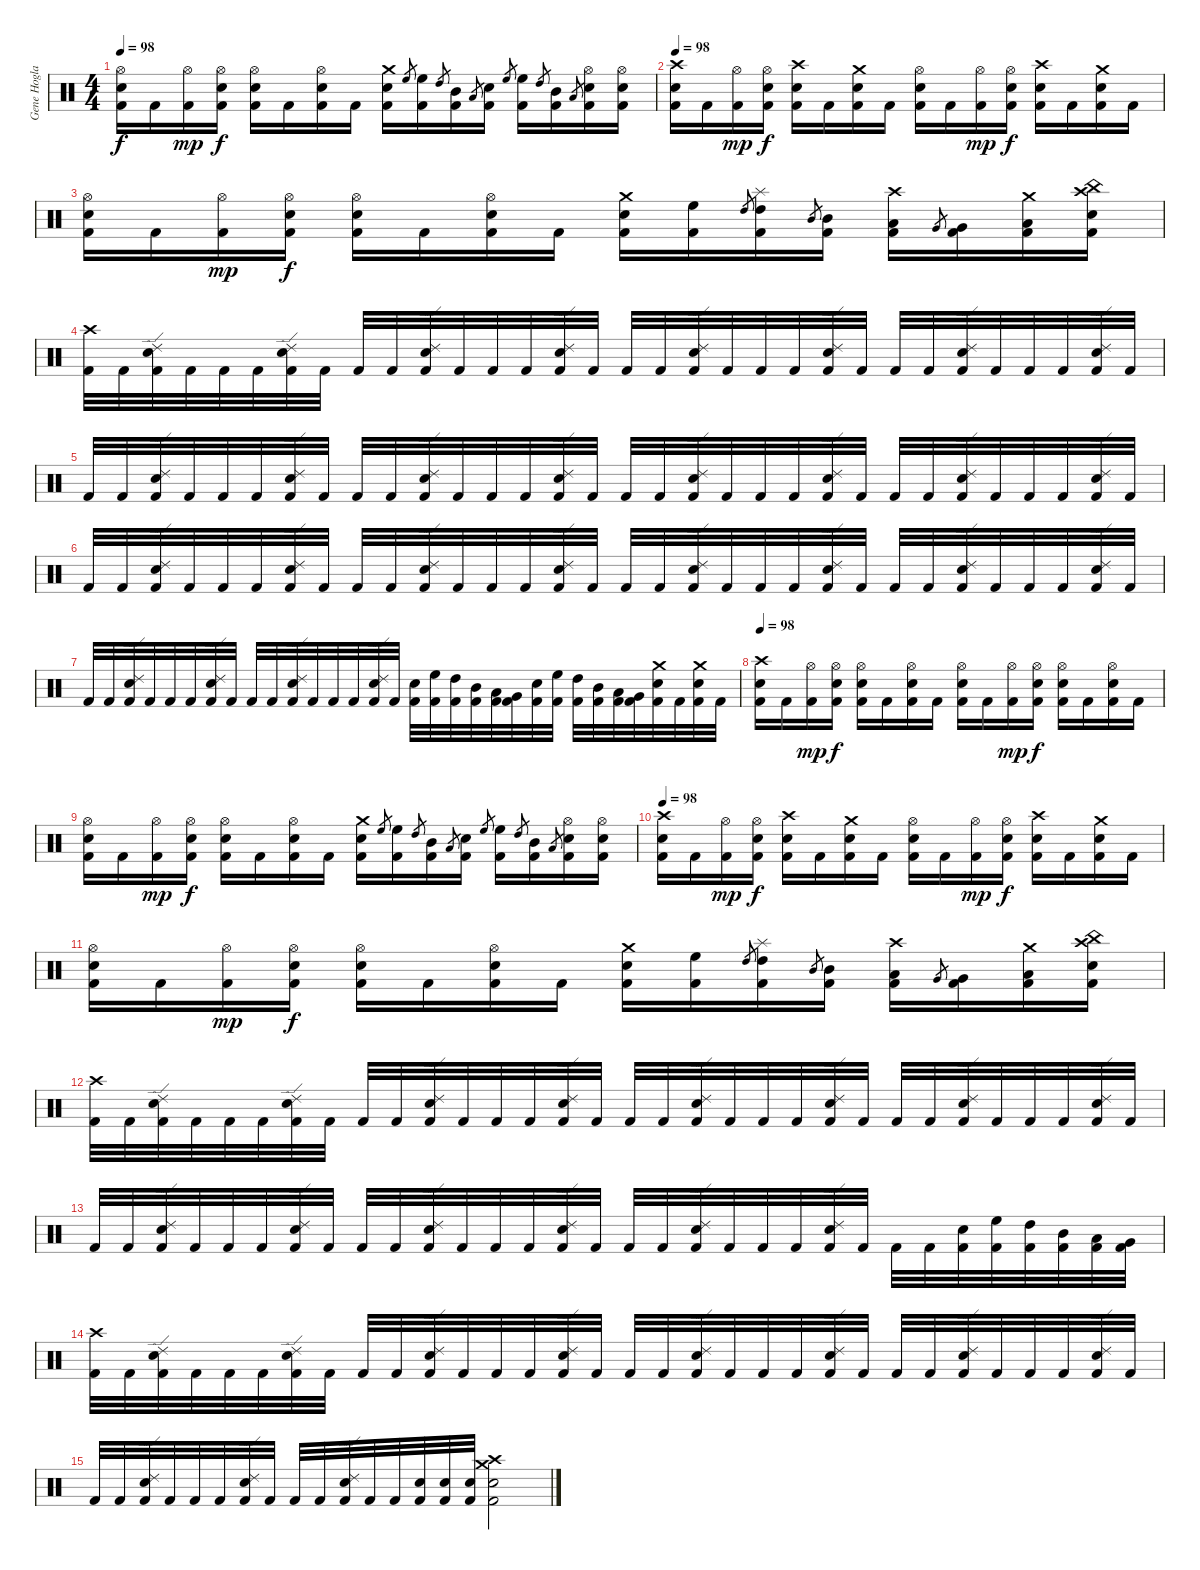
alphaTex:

\track ("Gene Hoglan" "Gene Hogla") {instrument percussion}
\staff {score}
\articulation defaults
\ts (4 4)
\tempo 98
\clef neutral
\ks c
("Kick (hit) 2" "Electric Snare (hit)" "Hi-Hat (open)").16{dy f} "Kick (hit) 2".16 ("Kick (hit) 2" "Hi-Hat (open)").16{dy mp} ("Kick (hit) 2" "Electric Snare (hit)" "Hi-Hat (open)").16{dy f} ("Kick (hit) 2" "Electric Snare (hit)" "Hi-Hat (open)").16 "Kick (hit) 2".16 ("Kick (hit) 2" "Electric Snare (hit)" "Hi-Hat (open)").16 "Kick (hit) 2".16 ("Kick (hit) 2" "Electric Snare (hit)" "Crash medium (hit)").16 "High Floor Tom (hit)".8{gr} ("Kick (hit) 2" "High Floor Tom (hit)").16 "High Tom (hit)".8{gr} ("Kick (hit) 2" "Mid Tom (hit)").16 "Low Tom (hit)".8{gr} ("Kick (hit) 2" "Electric Snare (hit)").16 "High Floor Tom (hit)".8{gr} ("Kick (hit) 2" "High Floor Tom (hit)").16 "High Tom (hit)".8{gr} ("Kick (hit) 2" "Mid Tom (hit)").16 "Low Tom (hit)".8{gr} ("Kick (hit) 2" "Electric Snare (hit)" "Hi-Hat (open)").16 ("Kick (hit) 2" "Electric Snare (hit)" "Hi-Hat (open)").16 |
\tempo 98
("Kick (hit) 2" "Electric Snare (hit)" "Crash high (hit)").16 "Kick (hit) 2".16 ("Kick (hit) 2" "Hi-Hat (open)").16{dy mp} ("Kick (hit) 2" "Electric Snare (hit)" "Hi-Hat (open)").16{dy f} ("Kick (hit) 2" "Electric Snare (hit)" "Crash high (hit)").16 "Kick (hit) 2".16 ("Kick (hit) 2" "Electric Snare (hit)" "Crash medium (hit)").16 "Kick (hit) 2".16 ("Kick (hit) 2" "Electric Snare (hit)" "Hi-Hat (open)").16 "Kick (hit) 2".16 ("Kick (hit) 2" "Hi-Hat (open)").16{dy mp} ("Kick (hit) 2" "Electric Snare (hit)" "Hi-Hat (open)").16{dy f} ("Kick (hit) 2" "Electric Snare (hit)" "Crash high (hit)").16 "Kick (hit) 2".16 ("Kick (hit) 2" "Electric Snare (hit)" "Crash medium (hit)").16 "Kick (hit) 2".16 |
("Kick (hit) 2" "Electric Snare (hit)" "Hi-Hat (open)").16 "Kick (hit) 2".16 ("Kick (hit) 2" "Hi-Hat (open)").16{dy mp} ("Kick (hit) 2" "Electric Snare (hit)" "Hi-Hat (open)").16{dy f} ("Kick (hit) 2" "Electric Snare (hit)" "Hi-Hat (open)").16 "Kick (hit) 2".16 ("Kick (hit) 2" "Electric Snare (hit)" "Hi-Hat (open)").16 "Kick (hit) 2".16 ("Kick (hit) 2" "Electric Snare (hit)" "Crash medium (hit)").16 ("Kick (hit) 2" "High Floor Tom (hit)").16 "High Tom (hit)".8{gr} ("Kick (hit) 2" "High Tom (hit)" "Splash (hit)").16 "Mid Tom (hit)".8{gr} ("Kick (hit) 2" "Mid Tom (hit)").16 ("Kick (hit) 2" "Low Tom (hit)" "Crash high (hit)").16 "Very Low Tom (hit)".8{gr} ("Kick (hit) 2" "Very Low Tom (hit)").16 ("Kick (hit) 2" "Low Floor Tom (hit)" "Crash medium (hit)").16 ("Kick (hit) 2" "Electric Snare (hit)" "Crash high (hit)" "China (hit)").16 |
("Kick (hit) 2" "Crash high (hit)").32 "Kick (hit) 2".32 ("Kick (hit) 2" "Electric Snare (hit)" "Ride (edge) 2").32 "Kick (hit) 2".32 "Kick (hit) 2".32 "Kick (hit) 2".32 ("Kick (hit) 2" "Electric Snare (hit)" "Ride (edge) 2").32 "Kick (hit) 2".32 "Kick (hit) 2".32 "Kick (hit) 2".32 ("Kick (hit) 2" "Electric Snare (hit)" "Ride (edge) 2").32 "Kick (hit) 2".32 "Kick (hit) 2".32 "Kick (hit) 2".32 ("Kick (hit) 2" "Electric Snare (hit)" "Ride (edge) 2").32 "Kick (hit) 2".32 "Kick (hit) 2".32 "Kick (hit) 2".32 ("Kick (hit) 2" "Electric Snare (hit)" "Ride (edge) 2").32 "Kick (hit) 2".32 "Kick (hit) 2".32 "Kick (hit) 2".32 ("Kick (hit) 2" "Electric Snare (hit)" "Ride (edge) 2").32 "Kick (hit) 2".32 "Kick (hit) 2".32 "Kick (hit) 2".32 ("Kick (hit) 2" "Electric Snare (hit)" "Ride (edge) 2").32 "Kick (hit) 2".32 "Kick (hit) 2".32 "Kick (hit) 2".32 ("Kick (hit) 2" "Electric Snare (hit)" "Ride (edge) 2").32 "Kick (hit) 2".32 |
"Kick (hit) 2".32 "Kick (hit) 2".32 ("Kick (hit) 2" "Electric Snare (hit)" "Ride (edge) 2").32 "Kick (hit) 2".32 "Kick (hit) 2".32 "Kick (hit) 2".32 ("Kick (hit) 2" "Electric Snare (hit)" "Ride (edge) 2").32 "Kick (hit) 2".32 "Kick (hit) 2".32 "Kick (hit) 2".32 ("Kick (hit) 2" "Electric Snare (hit)" "Ride (edge) 2").32 "Kick (hit) 2".32 "Kick (hit) 2".32 "Kick (hit) 2".32 ("Kick (hit) 2" "Electric Snare (hit)" "Ride (edge) 2").32 "Kick (hit) 2".32 "Kick (hit) 2".32 "Kick (hit) 2".32 ("Kick (hit) 2" "Electric Snare (hit)" "Ride (edge) 2").32 "Kick (hit) 2".32 "Kick (hit) 2".32 "Kick (hit) 2".32 ("Kick (hit) 2" "Electric Snare (hit)" "Ride (edge) 2").32 "Kick (hit) 2".32 "Kick (hit) 2".32 "Kick (hit) 2".32 ("Kick (hit) 2" "Electric Snare (hit)" "Ride (edge) 2").32 "Kick (hit) 2".32 "Kick (hit) 2".32 "Kick (hit) 2".32 ("Kick (hit) 2" "Electric Snare (hit)" "Ride (edge) 2").32 "Kick (hit) 2".32 |
"Kick (hit) 2".32 "Kick (hit) 2".32 ("Kick (hit) 2" "Electric Snare (hit)" "Ride (edge) 2").32 "Kick (hit) 2".32 "Kick (hit) 2".32 "Kick (hit) 2".32 ("Kick (hit) 2" "Electric Snare (hit)" "Ride (edge) 2").32 "Kick (hit) 2".32 "Kick (hit) 2".32 "Kick (hit) 2".32 ("Kick (hit) 2" "Electric Snare (hit)" "Ride (edge) 2").32 "Kick (hit) 2".32 "Kick (hit) 2".32 "Kick (hit) 2".32 ("Kick (hit) 2" "Electric Snare (hit)" "Ride (edge) 2").32 "Kick (hit) 2".32 "Kick (hit) 2".32 "Kick (hit) 2".32 ("Kick (hit) 2" "Electric Snare (hit)" "Ride (edge) 2").32 "Kick (hit) 2".32 "Kick (hit) 2".32 "Kick (hit) 2".32 ("Kick (hit) 2" "Electric Snare (hit)" "Ride (edge) 2").32 "Kick (hit) 2".32 "Kick (hit) 2".32 "Kick (hit) 2".32 ("Kick (hit) 2" "Electric Snare (hit)" "Ride (edge) 2").32 "Kick (hit) 2".32 "Kick (hit) 2".32 "Kick (hit) 2".32 ("Kick (hit) 2" "Electric Snare (hit)" "Ride (edge) 2").32 "Kick (hit) 2".32 |
"Kick (hit) 2".32 "Kick (hit) 2".32 ("Kick (hit) 2" "Electric Snare (hit)" "Ride (edge) 2").32 "Kick (hit) 2".32 "Kick (hit) 2".32 "Kick (hit) 2".32 ("Kick (hit) 2" "Electric Snare (hit)" "Ride (edge) 2").32 "Kick (hit) 2".32 "Kick (hit) 2".32 "Kick (hit) 2".32 ("Kick (hit) 2" "Electric Snare (hit)" "Ride (edge) 2").32 "Kick (hit) 2".32 "Kick (hit) 2".32 "Kick (hit) 2".32 ("Kick (hit) 2" "Electric Snare (hit)" "Ride (edge) 2").32 "Kick (hit) 2".32 ("Kick (hit) 2" "Electric Snare (hit)").32 ("Kick (hit) 2" "High Floor Tom (hit)").32 ("Kick (hit) 2" "High Tom (hit)").32 ("Kick (hit) 2" "Mid Tom (hit)").32 ("Kick (hit) 2" "Low Tom (hit)").32 ("Kick (hit) 2" "Very Low Tom (hit)").32 ("Kick (hit) 2" "Electric Snare (hit)").32 ("Kick (hit) 2" "High Floor Tom (hit)").32 ("Kick (hit) 2" "High Tom (hit)").32 ("Kick (hit) 2" "Mid Tom (hit)").32 ("Kick (hit) 2" "Low Tom (hit)").32 ("Kick (hit) 2" "Very Low Tom (hit)").32 ("Kick (hit) 2" "Electric Snare (hit)" "Crash medium (hit)").32 "Kick (hit) 2".32 ("Kick (hit) 2" "Electric Snare (hit)" "Crash medium (hit)").32 "Kick (hit) 2".32 |
\tempo 98
("Kick (hit) 2" "Electric Snare (hit)" "Crash high (hit)").16 "Kick (hit) 2".16 ("Kick (hit) 2" "Hi-Hat (open)").16{dy mp} ("Kick (hit) 2" "Electric Snare (hit)" "Hi-Hat (open)").16{dy f} ("Kick (hit) 2" "Electric Snare (hit)" "Hi-Hat (open)").16 "Kick (hit) 2".16 ("Kick (hit) 2" "Electric Snare (hit)" "Hi-Hat (open)").16 "Kick (hit) 2".16 ("Kick (hit) 2" "Electric Snare (hit)" "Hi-Hat (open)").16 "Kick (hit) 2".16 ("Kick (hit) 2" "Hi-Hat (open)").16{dy mp} ("Kick (hit) 2" "Electric Snare (hit)" "Hi-Hat (open)").16{dy f} ("Kick (hit) 2" "Electric Snare (hit)" "Hi-Hat (open)").16 "Kick (hit) 2".16 ("Kick (hit) 2" "Electric Snare (hit)" "Hi-Hat (open)").16 "Kick (hit) 2".16 |
("Kick (hit) 2" "Electric Snare (hit)" "Hi-Hat (open)").16 "Kick (hit) 2".16 ("Kick (hit) 2" "Hi-Hat (open)").16{dy mp} ("Kick (hit) 2" "Electric Snare (hit)" "Hi-Hat (open)").16{dy f} ("Kick (hit) 2" "Electric Snare (hit)" "Hi-Hat (open)").16 "Kick (hit) 2".16 ("Kick (hit) 2" "Electric Snare (hit)" "Hi-Hat (open)").16 "Kick (hit) 2".16 ("Kick (hit) 2" "Electric Snare (hit)" "Crash medium (hit)").16 "High Floor Tom (hit)".8{gr} ("Kick (hit) 2" "High Floor Tom (hit)").16 "High Tom (hit)".8{gr} ("Kick (hit) 2" "Mid Tom (hit)").16 "Low Tom (hit)".8{gr} ("Kick (hit) 2" "Electric Snare (hit)").16 "High Floor Tom (hit)".8{gr} ("Kick (hit) 2" "High Floor Tom (hit)").16 "High Tom (hit)".8{gr} ("Kick (hit) 2" "Mid Tom (hit)").16 "Low Tom (hit)".8{gr} ("Kick (hit) 2" "Electric Snare (hit)" "Hi-Hat (open)").16 ("Kick (hit) 2" "Electric Snare (hit)" "Hi-Hat (open)").16 |
\tempo 98
("Kick (hit) 2" "Electric Snare (hit)" "Crash high (hit)").16 "Kick (hit) 2".16 ("Kick (hit) 2" "Hi-Hat (open)").16{dy mp} ("Kick (hit) 2" "Electric Snare (hit)" "Hi-Hat (open)").16{dy f} ("Kick (hit) 2" "Electric Snare (hit)" "Crash high (hit)").16 "Kick (hit) 2".16 ("Kick (hit) 2" "Electric Snare (hit)" "Crash medium (hit)").16 "Kick (hit) 2".16 ("Kick (hit) 2" "Electric Snare (hit)" "Hi-Hat (open)").16 "Kick (hit) 2".16 ("Kick (hit) 2" "Hi-Hat (open)").16{dy mp} ("Kick (hit) 2" "Electric Snare (hit)" "Hi-Hat (open)").16{dy f} ("Kick (hit) 2" "Electric Snare (hit)" "Crash high (hit)").16 "Kick (hit) 2".16 ("Kick (hit) 2" "Electric Snare (hit)" "Crash medium (hit)").16 "Kick (hit) 2".16 |
("Kick (hit) 2" "Electric Snare (hit)" "Hi-Hat (open)").16 "Kick (hit) 2".16 ("Kick (hit) 2" "Hi-Hat (open)").16{dy mp} ("Kick (hit) 2" "Electric Snare (hit)" "Hi-Hat (open)").16{dy f} ("Kick (hit) 2" "Electric Snare (hit)" "Hi-Hat (open)").16 "Kick (hit) 2".16 ("Kick (hit) 2" "Electric Snare (hit)" "Hi-Hat (open)").16 "Kick (hit) 2".16 ("Kick (hit) 2" "Electric Snare (hit)" "Crash medium (hit)").16 ("Kick (hit) 2" "High Floor Tom (hit)").16 "High Tom (hit)".8{gr} ("Kick (hit) 2" "High Tom (hit)" "Splash (hit)").16 "Mid Tom (hit)".8{gr} ("Kick (hit) 2" "Mid Tom (hit)").16 ("Kick (hit) 2" "Low Tom (hit)" "Crash high (hit)").16 "Very Low Tom (hit)".8{gr} ("Kick (hit) 2" "Very Low Tom (hit)").16 ("Kick (hit) 2" "Low Floor Tom (hit)" "Crash medium (hit)").16 ("Kick (hit) 2" "Electric Snare (hit)" "Crash high (hit)" "China (hit)").16 |
("Kick (hit) 2" "Crash high (hit)").32 "Kick (hit) 2".32 ("Kick (hit) 2" "Electric Snare (hit)" "Ride (edge) 2").32 "Kick (hit) 2".32 "Kick (hit) 2".32 "Kick (hit) 2".32 ("Kick (hit) 2" "Electric Snare (hit)" "Ride (edge) 2").32 "Kick (hit) 2".32 "Kick (hit) 2".32 "Kick (hit) 2".32 ("Kick (hit) 2" "Electric Snare (hit)" "Ride (edge) 2").32 "Kick (hit) 2".32 "Kick (hit) 2".32 "Kick (hit) 2".32 ("Kick (hit) 2" "Electric Snare (hit)" "Ride (edge) 2").32 "Kick (hit) 2".32 "Kick (hit) 2".32 "Kick (hit) 2".32 ("Kick (hit) 2" "Electric Snare (hit)" "Ride (edge) 2").32 "Kick (hit) 2".32 "Kick (hit) 2".32 "Kick (hit) 2".32 ("Kick (hit) 2" "Electric Snare (hit)" "Ride (edge) 2").32 "Kick (hit) 2".32 "Kick (hit) 2".32 "Kick (hit) 2".32 ("Kick (hit) 2" "Electric Snare (hit)" "Ride (edge) 2").32 "Kick (hit) 2".32 "Kick (hit) 2".32 "Kick (hit) 2".32 ("Kick (hit) 2" "Electric Snare (hit)" "Ride (edge) 2").32 "Kick (hit) 2".32 |
"Kick (hit) 2".32 "Kick (hit) 2".32 ("Kick (hit) 2" "Electric Snare (hit)" "Ride (edge) 2").32 "Kick (hit) 2".32 "Kick (hit) 2".32 "Kick (hit) 2".32 ("Kick (hit) 2" "Electric Snare (hit)" "Ride (edge) 2").32 "Kick (hit) 2".32 "Kick (hit) 2".32 "Kick (hit) 2".32 ("Kick (hit) 2" "Electric Snare (hit)" "Ride (edge) 2").32 "Kick (hit) 2".32 "Kick (hit) 2".32 "Kick (hit) 2".32 ("Kick (hit) 2" "Electric Snare (hit)" "Ride (edge) 2").32 "Kick (hit) 2".32 "Kick (hit) 2".32 "Kick (hit) 2".32 ("Kick (hit) 2" "Electric Snare (hit)" "Ride (edge) 2").32 "Kick (hit) 2".32 "Kick (hit) 2".32 "Kick (hit) 2".32 ("Kick (hit) 2" "Electric Snare (hit)" "Ride (edge) 2").32 "Kick (hit) 2".32 "Kick (hit) 2".32 "Kick (hit) 2".32 ("Kick (hit) 2" "Electric Snare (hit)").32 ("Kick (hit) 2" "High Floor Tom (hit)").32 ("Kick (hit) 2" "High Tom (hit)").32 ("Kick (hit) 2" "Mid Tom (hit)").32 ("Kick (hit) 2" "Low Tom (hit)").32 ("Kick (hit) 2" "Very Low Tom (hit)").32 |
("Kick (hit) 2" "Crash high (hit)").32 "Kick (hit) 2".32 ("Kick (hit) 2" "Electric Snare (hit)" "Ride (edge) 2").32 "Kick (hit) 2".32 "Kick (hit) 2".32 "Kick (hit) 2".32 ("Kick (hit) 2" "Electric Snare (hit)" "Ride (edge) 2").32 "Kick (hit) 2".32 "Kick (hit) 2".32 "Kick (hit) 2".32 ("Kick (hit) 2" "Electric Snare (hit)" "Ride (edge) 2").32 "Kick (hit) 2".32 "Kick (hit) 2".32 "Kick (hit) 2".32 ("Kick (hit) 2" "Electric Snare (hit)" "Ride (edge) 2").32 "Kick (hit) 2".32 "Kick (hit) 2".32 "Kick (hit) 2".32 ("Kick (hit) 2" "Electric Snare (hit)" "Ride (edge) 2").32 "Kick (hit) 2".32 "Kick (hit) 2".32 "Kick (hit) 2".32 ("Kick (hit) 2" "Electric Snare (hit)" "Ride (edge) 2").32 "Kick (hit) 2".32 "Kick (hit) 2".32 "Kick (hit) 2".32 ("Kick (hit) 2" "Electric Snare (hit)" "Ride (edge) 2").32 "Kick (hit) 2".32 "Kick (hit) 2".32 "Kick (hit) 2".32 ("Kick (hit) 2" "Electric Snare (hit)" "Ride (edge) 2").32 "Kick (hit) 2".32 |
"Kick (hit) 2".32 "Kick (hit) 2".32 ("Kick (hit) 2" "Electric Snare (hit)" "Ride (edge) 2").32 "Kick (hit) 2".32 "Kick (hit) 2".32 "Kick (hit) 2".32 ("Kick (hit) 2" "Electric Snare (hit)" "Ride (edge) 2").32 "Kick (hit) 2".32 "Kick (hit) 2".32 "Kick (hit) 2".32 ("Kick (hit) 2" "Electric Snare (hit)" "Ride (edge) 2").32 "Kick (hit) 2".32 "Kick (hit) 2".32 ("Kick (hit) 2" "Electric Snare (hit)").32 ("Kick (hit) 2" "Electric Snare (hit)").32 ("Kick (hit) 2" "Electric Snare (hit)").32 ("Kick (hit) 2" "Electric Snare (hit)" "Crash high (hit)" "Crash medium (hit)").2
